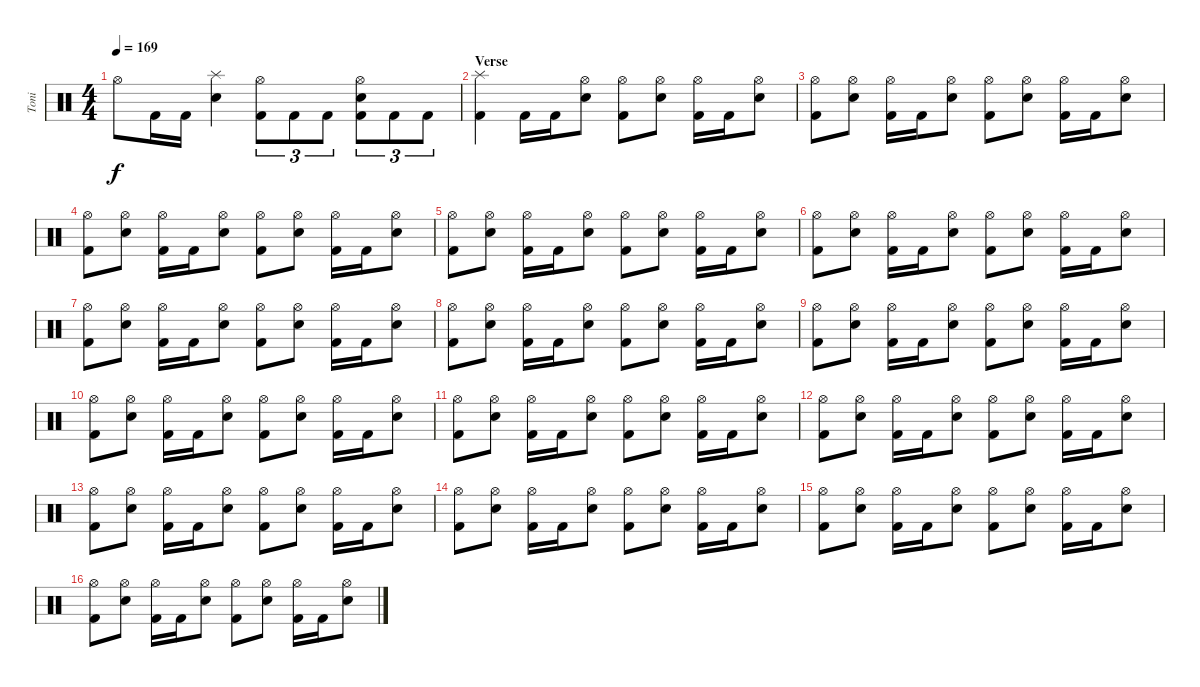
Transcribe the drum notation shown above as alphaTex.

\track ("Toni" "Toni") {instrument percussion}
\staff {score}
\articulation defaults
\ts (4 4)
\tempo 169
\clef neutral
\ks c "Hi-Hat (open)".8{dy f} "Kick (hit) 2".16 "Kick (hit) 2".16
("Splash (hit)" "Electric Snare (hit)").4 ("Hi-Hat (open)" "Kick (hit) 2").8{tu (3 2)} "Kick (hit) 2".8{tu (3 2)} "Kick (hit) 2".8{tu (3 2)} ("Hi-Hat (open)" "Electric Snare (hit)" "Kick (hit) 2").8{tu (3 2)} "Kick (hit) 2".8{tu (3 2)} "Kick (hit) 2".8{tu (3 2)} |
\section ("" "Verse")
("Splash (hit)" "Kick (hit) 2").4 "Kick (hit) 2".16 "Kick (hit) 2".16 ("Hi-Hat (open)" "Electric Snare (hit)").8 ("Hi-Hat (open)" "Kick (hit) 2").8 ("Hi-Hat (open)" "Electric Snare (hit)").8 ("Hi-Hat (open)" "Kick (hit) 2").16 "Kick (hit) 2".16 ("Hi-Hat (open)" "Electric Snare (hit)").8 |
("Hi-Hat (open)" "Kick (hit) 2").8 ("Hi-Hat (open)" "Electric Snare (hit)").8 ("Hi-Hat (open)" "Kick (hit) 2").16 "Kick (hit) 2".16 ("Hi-Hat (open)" "Electric Snare (hit)").8 ("Hi-Hat (open)" "Kick (hit) 2").8 ("Hi-Hat (open)" "Electric Snare (hit)").8 ("Hi-Hat (open)" "Kick (hit) 2").16 "Kick (hit) 2".16 ("Hi-Hat (open)" "Electric Snare (hit)").8 |
("Hi-Hat (open)" "Kick (hit) 2").8 ("Hi-Hat (open)" "Electric Snare (hit)").8 ("Hi-Hat (open)" "Kick (hit) 2").16 "Kick (hit) 2".16 ("Hi-Hat (open)" "Electric Snare (hit)").8 ("Hi-Hat (open)" "Kick (hit) 2").8 ("Hi-Hat (open)" "Electric Snare (hit)").8 ("Hi-Hat (open)" "Kick (hit) 2").16 "Kick (hit) 2".16 ("Hi-Hat (open)" "Electric Snare (hit)").8 |
("Hi-Hat (open)" "Kick (hit) 2").8 ("Hi-Hat (open)" "Electric Snare (hit)").8 ("Hi-Hat (open)" "Kick (hit) 2").16 "Kick (hit) 2".16 ("Hi-Hat (open)" "Electric Snare (hit)").8 ("Hi-Hat (open)" "Kick (hit) 2").8 ("Hi-Hat (open)" "Electric Snare (hit)").8 ("Hi-Hat (open)" "Kick (hit) 2").16 "Kick (hit) 2".16 ("Hi-Hat (open)" "Electric Snare (hit)").8 |
("Hi-Hat (open)" "Kick (hit) 2").8 ("Hi-Hat (open)" "Electric Snare (hit)").8 ("Hi-Hat (open)" "Kick (hit) 2").16 "Kick (hit) 2".16 ("Hi-Hat (open)" "Electric Snare (hit)").8 ("Hi-Hat (open)" "Kick (hit) 2").8 ("Hi-Hat (open)" "Electric Snare (hit)").8 ("Hi-Hat (open)" "Kick (hit) 2").16 "Kick (hit) 2".16 ("Hi-Hat (open)" "Electric Snare (hit)").8 |
("Hi-Hat (open)" "Kick (hit) 2").8 ("Hi-Hat (open)" "Electric Snare (hit)").8 ("Hi-Hat (open)" "Kick (hit) 2").16 "Kick (hit) 2".16 ("Hi-Hat (open)" "Electric Snare (hit)").8 ("Hi-Hat (open)" "Kick (hit) 2").8 ("Hi-Hat (open)" "Electric Snare (hit)").8 ("Hi-Hat (open)" "Kick (hit) 2").16 "Kick (hit) 2".16 ("Hi-Hat (open)" "Electric Snare (hit)").8 |
("Hi-Hat (open)" "Kick (hit) 2").8 ("Hi-Hat (open)" "Electric Snare (hit)").8 ("Hi-Hat (open)" "Kick (hit) 2").16 "Kick (hit) 2".16 ("Hi-Hat (open)" "Electric Snare (hit)").8 ("Hi-Hat (open)" "Kick (hit) 2").8 ("Hi-Hat (open)" "Electric Snare (hit)").8 ("Hi-Hat (open)" "Kick (hit) 2").16 "Kick (hit) 2".16 ("Hi-Hat (open)" "Electric Snare (hit)").8 |
("Hi-Hat (open)" "Kick (hit) 2").8 ("Hi-Hat (open)" "Electric Snare (hit)").8 ("Hi-Hat (open)" "Kick (hit) 2").16 "Kick (hit) 2".16 ("Hi-Hat (open)" "Electric Snare (hit)").8 ("Hi-Hat (open)" "Kick (hit) 2").8 ("Hi-Hat (open)" "Electric Snare (hit)").8 ("Hi-Hat (open)" "Kick (hit) 2").16 "Kick (hit) 2".16 ("Hi-Hat (open)" "Electric Snare (hit)").8 |
("Hi-Hat (open)" "Kick (hit) 2").8 ("Hi-Hat (open)" "Electric Snare (hit)").8 ("Hi-Hat (open)" "Kick (hit) 2").16 "Kick (hit) 2".16 ("Hi-Hat (open)" "Electric Snare (hit)").8 ("Hi-Hat (open)" "Kick (hit) 2").8 ("Hi-Hat (open)" "Electric Snare (hit)").8 ("Hi-Hat (open)" "Kick (hit) 2").16 "Kick (hit) 2".16 ("Hi-Hat (open)" "Electric Snare (hit)").8 |
("Hi-Hat (open)" "Kick (hit) 2").8 ("Hi-Hat (open)" "Electric Snare (hit)").8 ("Hi-Hat (open)" "Kick (hit) 2").16 "Kick (hit) 2".16 ("Hi-Hat (open)" "Electric Snare (hit)").8 ("Hi-Hat (open)" "Kick (hit) 2").8 ("Hi-Hat (open)" "Electric Snare (hit)").8 ("Hi-Hat (open)" "Kick (hit) 2").16 "Kick (hit) 2".16 ("Hi-Hat (open)" "Electric Snare (hit)").8 |
("Hi-Hat (open)" "Kick (hit) 2").8 ("Hi-Hat (open)" "Electric Snare (hit)").8 ("Hi-Hat (open)" "Kick (hit) 2").16 "Kick (hit) 2".16 ("Hi-Hat (open)" "Electric Snare (hit)").8 ("Hi-Hat (open)" "Kick (hit) 2").8 ("Hi-Hat (open)" "Electric Snare (hit)").8 ("Hi-Hat (open)" "Kick (hit) 2").16 "Kick (hit) 2".16 ("Hi-Hat (open)" "Electric Snare (hit)").8 |
("Hi-Hat (open)" "Kick (hit) 2").8 ("Hi-Hat (open)" "Electric Snare (hit)").8 ("Hi-Hat (open)" "Kick (hit) 2").16 "Kick (hit) 2".16 ("Hi-Hat (open)" "Electric Snare (hit)").8 ("Hi-Hat (open)" "Kick (hit) 2").8 ("Hi-Hat (open)" "Electric Snare (hit)").8 ("Hi-Hat (open)" "Kick (hit) 2").16 "Kick (hit) 2".16 ("Hi-Hat (open)" "Electric Snare (hit)").8 |
("Hi-Hat (open)" "Kick (hit) 2").8 ("Hi-Hat (open)" "Electric Snare (hit)").8 ("Hi-Hat (open)" "Kick (hit) 2").16 "Kick (hit) 2".16 ("Hi-Hat (open)" "Electric Snare (hit)").8 ("Hi-Hat (open)" "Kick (hit) 2").8 ("Hi-Hat (open)" "Electric Snare (hit)").8 ("Hi-Hat (open)" "Kick (hit) 2").16 "Kick (hit) 2".16 ("Hi-Hat (open)" "Electric Snare (hit)").8 |
("Hi-Hat (open)" "Kick (hit) 2").8 ("Hi-Hat (open)" "Electric Snare (hit)").8 ("Hi-Hat (open)" "Kick (hit) 2").16 "Kick (hit) 2".16 ("Hi-Hat (open)" "Electric Snare (hit)").8 ("Hi-Hat (open)" "Kick (hit) 2").8 ("Hi-Hat (open)" "Electric Snare (hit)").8 ("Hi-Hat (open)" "Kick (hit) 2").16 "Kick (hit) 2".16 ("Hi-Hat (open)" "Electric Snare (hit)").8 |
("Hi-Hat (open)" "Kick (hit) 2").8 ("Hi-Hat (open)" "Electric Snare (hit)").8 ("Hi-Hat (open)" "Kick (hit) 2").16 "Kick (hit) 2".16 ("Hi-Hat (open)" "Electric Snare (hit)").8 ("Hi-Hat (open)" "Kick (hit) 2").8 ("Hi-Hat (open)" "Electric Snare (hit)").8 ("Hi-Hat (open)" "Kick (hit) 2").16 "Kick (hit) 2".16 ("Hi-Hat (open)" "Electric Snare (hit)").8
